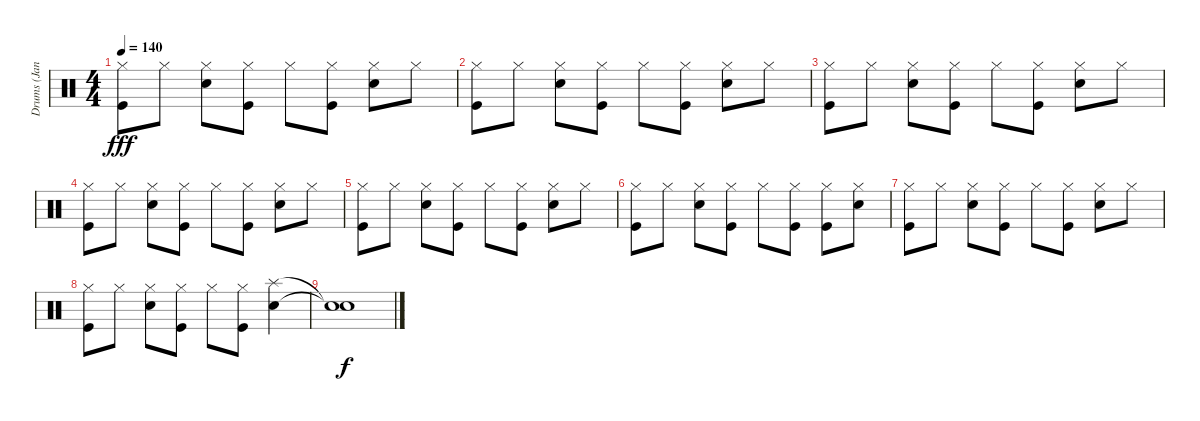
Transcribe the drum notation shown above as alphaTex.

\track ("Drums (Janet)" "Drums (Jan") {instrument percussion}
\staff {score}
\articulation defaults
\ts (4 4)
\tempo 140
\clef neutral
\ks c
("Hi-Hat (closed)" "Kick (hit)").8{dy fff} "Hi-Hat (closed)".8 ("Hi-Hat (closed)" "Snare (hit) 2").8 ("Hi-Hat (closed)" "Kick (hit)").8 "Hi-Hat (closed)".8 ("Hi-Hat (closed)" "Kick (hit)").8 ("Hi-Hat (closed)" "Snare (hit) 2").8 "Hi-Hat (closed)".8 |
("Hi-Hat (closed)" "Kick (hit)").8 "Hi-Hat (closed)".8 ("Hi-Hat (closed)" "Snare (hit) 2").8 ("Hi-Hat (closed)" "Kick (hit)").8 "Hi-Hat (closed)".8 ("Hi-Hat (closed)" "Kick (hit)").8 ("Hi-Hat (closed)" "Snare (hit) 2").8 "Hi-Hat (closed)".8 |
("Hi-Hat (closed)" "Kick (hit)").8 "Hi-Hat (closed)".8 ("Hi-Hat (closed)" "Snare (hit) 2").8 ("Hi-Hat (closed)" "Kick (hit)").8 "Hi-Hat (closed)".8 ("Hi-Hat (closed)" "Kick (hit)").8 ("Hi-Hat (closed)" "Snare (hit) 2").8 "Hi-Hat (closed)".8 |
("Hi-Hat (closed)" "Kick (hit)").8 "Hi-Hat (closed)".8 ("Hi-Hat (closed)" "Snare (hit) 2").8 ("Hi-Hat (closed)" "Kick (hit)").8 "Hi-Hat (closed)".8 ("Hi-Hat (closed)" "Kick (hit)").8 ("Hi-Hat (closed)" "Snare (hit) 2").8 "Hi-Hat (closed)".8 |
("Hi-Hat (closed)" "Kick (hit)").8 "Hi-Hat (closed)".8 ("Hi-Hat (closed)" "Snare (hit) 2").8 ("Hi-Hat (closed)" "Kick (hit)").8 "Hi-Hat (closed)".8 ("Hi-Hat (closed)" "Kick (hit)").8 ("Hi-Hat (closed)" "Snare (hit) 2").8 "Hi-Hat (closed)".8 |
("Hi-Hat (closed)" "Kick (hit)").8 "Hi-Hat (closed)".8 ("Hi-Hat (closed)" "Snare (hit) 2").8 ("Hi-Hat (closed)" "Kick (hit)").8 "Hi-Hat (closed)".8 ("Hi-Hat (closed)" "Kick (hit)").8 ("Hi-Hat (closed)" "Kick (hit)").8 ("Hi-Hat (closed)" "Snare (hit) 2").8 |
("Hi-Hat (closed)" "Kick (hit)").8 "Hi-Hat (closed)".8 ("Hi-Hat (closed)" "Snare (hit) 2").8 ("Hi-Hat (closed)" "Kick (hit)").8 "Hi-Hat (closed)".8 ("Hi-Hat (closed)" "Kick (hit)").8 ("Hi-Hat (closed)" "Snare (hit) 2").8 "Hi-Hat (closed)".8 |
("Hi-Hat (closed)" "Kick (hit)").8 "Hi-Hat (closed)".8 ("Hi-Hat (closed)" "Snare (hit) 2").8 ("Hi-Hat (closed)" "Kick (hit)").8 "Hi-Hat (closed)".8 ("Hi-Hat (closed)" "Kick (hit)").8 ("Splash (hit)" "Snare (hit) 2").4 |
("Snare (hit)"{t} "Snare (hit)"{t}).1{dy f}
